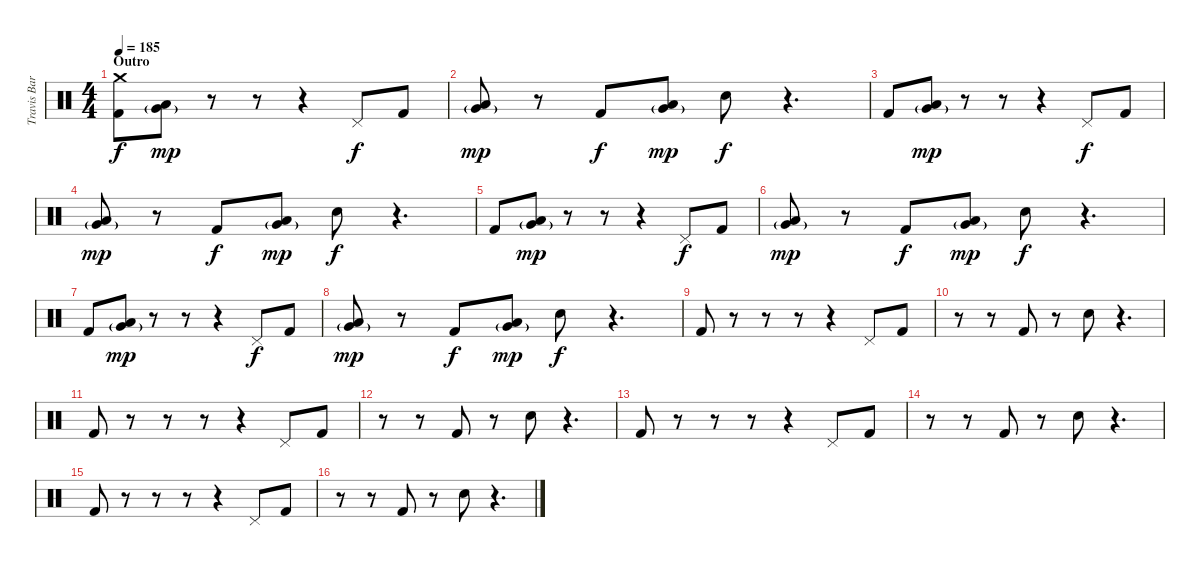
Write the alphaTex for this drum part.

\track ("Travis Barker - Drums" "Travis Bar") {instrument percussion}
\staff {score}
\articulation defaults
\ts (4 4)
\section ("" "Outro")
\tempo 185
\clef neutral
\ks c
("Crash medium (hit)" "Kick (hit) 2").8{dy f} ("Low Floor Tom (hit)" "Very Low Tom (hit)"{g}).8{dy mp} r.8 r.8 r.4 "Pedal Hi-Hat (hit)".8{dy f} "Kick (hit) 2".8 |
("Low Floor Tom (hit)" "Very Low Tom (hit)"{g}).8{dy mp} r.8 "Kick (hit) 2".8{dy f} ("Low Floor Tom (hit)" "Very Low Tom (hit)"{g}).8{dy mp} "Electric Snare (hit)".8{dy f} r.4{d} |
"Kick (hit) 2".8 ("Low Floor Tom (hit)" "Very Low Tom (hit)"{g}).8{dy mp} r.8 r.8 r.4 "Pedal Hi-Hat (hit)".8{dy f} "Kick (hit) 2".8 |
("Low Floor Tom (hit)" "Very Low Tom (hit)"{g}).8{dy mp} r.8 "Kick (hit) 2".8{dy f} ("Low Floor Tom (hit)" "Very Low Tom (hit)"{g}).8{dy mp} "Electric Snare (hit)".8{dy f} r.4{d} |
"Kick (hit) 2".8 ("Low Floor Tom (hit)" "Very Low Tom (hit)"{g}).8{dy mp} r.8 r.8 r.4 "Pedal Hi-Hat (hit)".8{dy f} "Kick (hit) 2".8 |
("Low Floor Tom (hit)" "Very Low Tom (hit)"{g}).8{dy mp} r.8 "Kick (hit) 2".8{dy f} ("Low Floor Tom (hit)" "Very Low Tom (hit)"{g}).8{dy mp} "Electric Snare (hit)".8{dy f} r.4{d} |
"Kick (hit) 2".8 ("Low Floor Tom (hit)" "Very Low Tom (hit)"{g}).8{dy mp} r.8 r.8 r.4 "Pedal Hi-Hat (hit)".8{dy f} "Kick (hit) 2".8 |
("Low Floor Tom (hit)" "Very Low Tom (hit)"{g}).8{dy mp} r.8 "Kick (hit) 2".8{dy f} ("Low Floor Tom (hit)" "Very Low Tom (hit)"{g}).8{dy mp} "Electric Snare (hit)".8{dy f} r.4{d} |
"Kick (hit) 2".8 r.8 r.8 r.8 r.4 "Pedal Hi-Hat (hit)".8 "Kick (hit) 2".8 |
r.8 r.8 "Kick (hit) 2".8 r.8 "Electric Snare (hit)".8 r.4{d} |
"Kick (hit) 2".8 r.8 r.8 r.8 r.4 "Pedal Hi-Hat (hit)".8 "Kick (hit) 2".8 |
r.8 r.8 "Kick (hit) 2".8 r.8 "Electric Snare (hit)".8 r.4{d} |
"Kick (hit) 2".8 r.8 r.8 r.8 r.4 "Pedal Hi-Hat (hit)".8 "Kick (hit) 2".8 |
r.8 r.8 "Kick (hit) 2".8 r.8 "Electric Snare (hit)".8 r.4{d} |
"Kick (hit) 2".8 r.8 r.8 r.8 r.4 "Pedal Hi-Hat (hit)".8 "Kick (hit) 2".8 |
r.8 r.8 "Kick (hit) 2".8 r.8 "Electric Snare (hit)".8 r.4{d}
